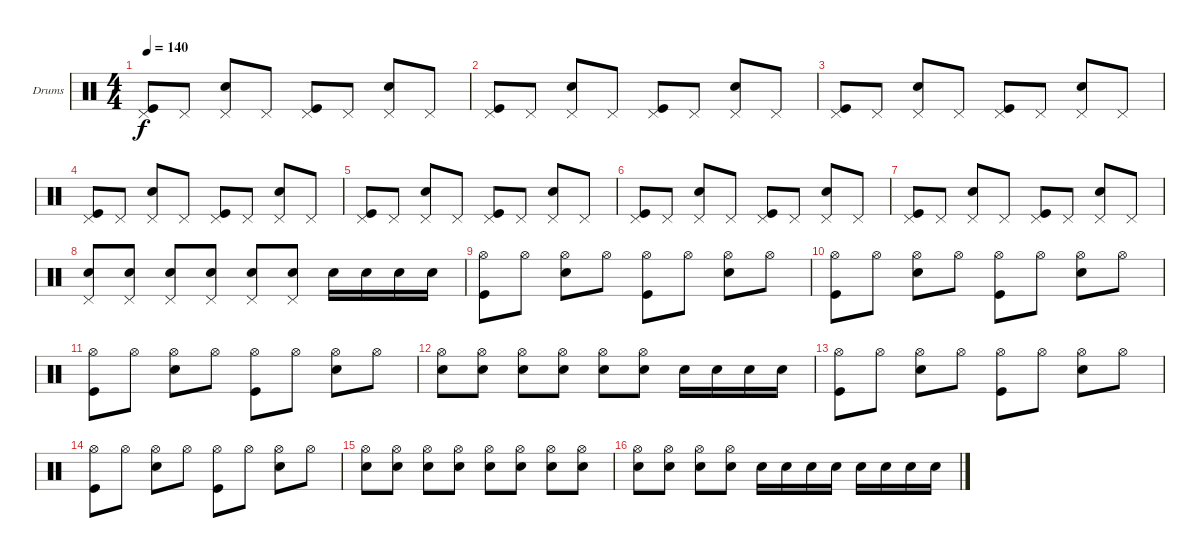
\bracketExtendMode groupsimilarinstruments
\firstSystemTrackNameOrientation horizontal
\otherSystemsTrackNameOrientation horizontal
\track ("Drumkit" "Drums") {instrument percussion}
\staff {score}
\articulation defaults
\ts (4 4)
\tempo 140
\clef neutral
\scale
0.333333
\ks c
("Pedal Hi-Hat (hit)" "Kick (hit)").8{dy f} "Pedal Hi-Hat (hit)".8 ("Pedal Hi-Hat (hit)" "Snare (hit) 2").8 "Pedal Hi-Hat (hit)".8 ("Pedal Hi-Hat (hit)" "Kick (hit)").8 "Pedal Hi-Hat (hit)".8 ("Pedal Hi-Hat (hit)" "Snare (hit) 2").8 "Pedal Hi-Hat (hit)".8 |
\scale
0.333333 ("Pedal Hi-Hat (hit)" "Kick (hit)").8 "Pedal Hi-Hat (hit)".8 ("Pedal Hi-Hat (hit)" "Snare (hit) 2").8 "Pedal Hi-Hat (hit)".8 ("Pedal Hi-Hat (hit)" "Kick (hit)").8 "Pedal Hi-Hat (hit)".8 ("Pedal Hi-Hat (hit)" "Snare (hit) 2").8 "Pedal Hi-Hat (hit)".8 |
\scale
0.333333 ("Pedal Hi-Hat (hit)" "Kick (hit)").8 "Pedal Hi-Hat (hit)".8 ("Pedal Hi-Hat (hit)" "Snare (hit) 2").8 "Pedal Hi-Hat (hit)".8 ("Pedal Hi-Hat (hit)" "Kick (hit)").8 "Pedal Hi-Hat (hit)".8 ("Pedal Hi-Hat (hit)" "Snare (hit) 2").8 "Pedal Hi-Hat (hit)".8 |
\scale
0.333333 ("Pedal Hi-Hat (hit)" "Kick (hit)").8 "Pedal Hi-Hat (hit)".8 ("Pedal Hi-Hat (hit)" "Snare (hit) 2").8 "Pedal Hi-Hat (hit)".8 ("Pedal Hi-Hat (hit)" "Kick (hit)").8 "Pedal Hi-Hat (hit)".8 ("Pedal Hi-Hat (hit)" "Snare (hit) 2").8 "Pedal Hi-Hat (hit)".8 |
\scale
0.333333 ("Pedal Hi-Hat (hit)" "Kick (hit)").8 "Pedal Hi-Hat (hit)".8 ("Pedal Hi-Hat (hit)" "Snare (hit) 2").8 "Pedal Hi-Hat (hit)".8 ("Pedal Hi-Hat (hit)" "Kick (hit)").8 "Pedal Hi-Hat (hit)".8 ("Pedal Hi-Hat (hit)" "Snare (hit) 2").8 "Pedal Hi-Hat (hit)".8 |
\scale
0.333333 ("Pedal Hi-Hat (hit)" "Kick (hit)").8 "Pedal Hi-Hat (hit)".8 ("Pedal Hi-Hat (hit)" "Snare (hit) 2").8 "Pedal Hi-Hat (hit)".8 ("Pedal Hi-Hat (hit)" "Kick (hit)").8 "Pedal Hi-Hat (hit)".8 ("Pedal Hi-Hat (hit)" "Snare (hit) 2").8 "Pedal Hi-Hat (hit)".8 |
\scale
0.333333 ("Pedal Hi-Hat (hit)" "Kick (hit)").8 "Pedal Hi-Hat (hit)".8 ("Pedal Hi-Hat (hit)" "Snare (hit) 2").8 "Pedal Hi-Hat (hit)".8 ("Pedal Hi-Hat (hit)" "Kick (hit)").8 "Pedal Hi-Hat (hit)".8 ("Pedal Hi-Hat (hit)" "Snare (hit) 2").8 "Pedal Hi-Hat (hit)".8 |
\scale
0.333333 ("Pedal Hi-Hat (hit)" "Snare (hit) 2").8 ("Pedal Hi-Hat (hit)" "Snare (hit) 2").8 ("Pedal Hi-Hat (hit)" "Snare (hit) 2").8 ("Pedal Hi-Hat (hit)" "Snare (hit) 2").8 ("Pedal Hi-Hat (hit)" "Snare (hit) 2").8 ("Pedal Hi-Hat (hit)" "Snare (hit) 2").8 "Snare (hit) 2".16 "Snare (hit) 2".16 "Snare (hit) 2".16 "Snare (hit) 2".16 |
\scale
0.333333 ("Hi-Hat (open)" "Kick (hit)").8 "Hi-Hat (open)".8 ("Hi-Hat (open)" "Snare (hit) 2").8 "Hi-Hat (open)".8 ("Hi-Hat (open)" "Kick (hit)").8 "Hi-Hat (open)".8 ("Hi-Hat (open)" "Snare (hit) 2").8 "Hi-Hat (open)".8 |
\scale
0.333333 ("Hi-Hat (open)" "Kick (hit)").8 "Hi-Hat (open)".8 ("Hi-Hat (open)" "Snare (hit) 2").8 "Hi-Hat (open)".8 ("Hi-Hat (open)" "Kick (hit)").8 "Hi-Hat (open)".8 ("Hi-Hat (open)" "Snare (hit) 2").8 "Hi-Hat (open)".8 |
\scale
0.333333 ("Hi-Hat (open)" "Kick (hit)").8 "Hi-Hat (open)".8 ("Hi-Hat (open)" "Snare (hit) 2").8 "Hi-Hat (open)".8 ("Hi-Hat (open)" "Kick (hit)").8 "Hi-Hat (open)".8 ("Hi-Hat (open)" "Snare (hit) 2").8 "Hi-Hat (open)".8 |
\scale
0.333333 ("Hi-Hat (open)" "Snare (hit) 2").8 ("Hi-Hat (open)" "Snare (hit) 2").8 ("Hi-Hat (open)" "Snare (hit) 2").8 ("Hi-Hat (open)" "Snare (hit) 2").8 ("Hi-Hat (open)" "Snare (hit) 2").8 ("Hi-Hat (open)" "Snare (hit) 2").8 "Snare (hit) 2".16 "Snare (hit) 2".16 "Snare (hit) 2".16 "Snare (hit) 2".16 |
\scale
0.333333 ("Hi-Hat (open)" "Kick (hit)").8 "Hi-Hat (open)".8 ("Hi-Hat (open)" "Snare (hit) 2").8 "Hi-Hat (open)".8 ("Hi-Hat (open)" "Kick (hit)").8 "Hi-Hat (open)".8 ("Hi-Hat (open)" "Snare (hit) 2").8 "Hi-Hat (open)".8 |
\scale
0.333333 ("Hi-Hat (open)" "Kick (hit)").8 "Hi-Hat (open)".8 ("Hi-Hat (open)" "Snare (hit) 2").8 "Hi-Hat (open)".8 ("Hi-Hat (open)" "Kick (hit)").8 "Hi-Hat (open)".8 ("Hi-Hat (open)" "Snare (hit) 2").8 "Hi-Hat (open)".8 |
\scale
0.333333 ("Hi-Hat (open)" "Snare (hit) 2").8 ("Hi-Hat (open)" "Snare (hit) 2").8 ("Hi-Hat (open)" "Snare (hit) 2").8 ("Hi-Hat (open)" "Snare (hit) 2").8 ("Hi-Hat (open)" "Snare (hit) 2").8 ("Hi-Hat (open)" "Snare (hit) 2").8 ("Hi-Hat (open)" "Snare (hit) 2").8 ("Hi-Hat (open)" "Snare (hit) 2").8 |
\scale
0.333333 ("Hi-Hat (open)" "Snare (hit) 2").8 ("Hi-Hat (open)" "Snare (hit) 2").8 ("Hi-Hat (open)" "Snare (hit) 2").8 ("Hi-Hat (open)" "Snare (hit) 2").8 "Snare (hit) 2".16 "Snare (hit) 2".16 "Snare (hit) 2".16 "Snare (hit) 2".16 "Snare (hit) 2".16 "Snare (hit) 2".16 "Snare (hit) 2".16 "Snare (hit) 2".16
